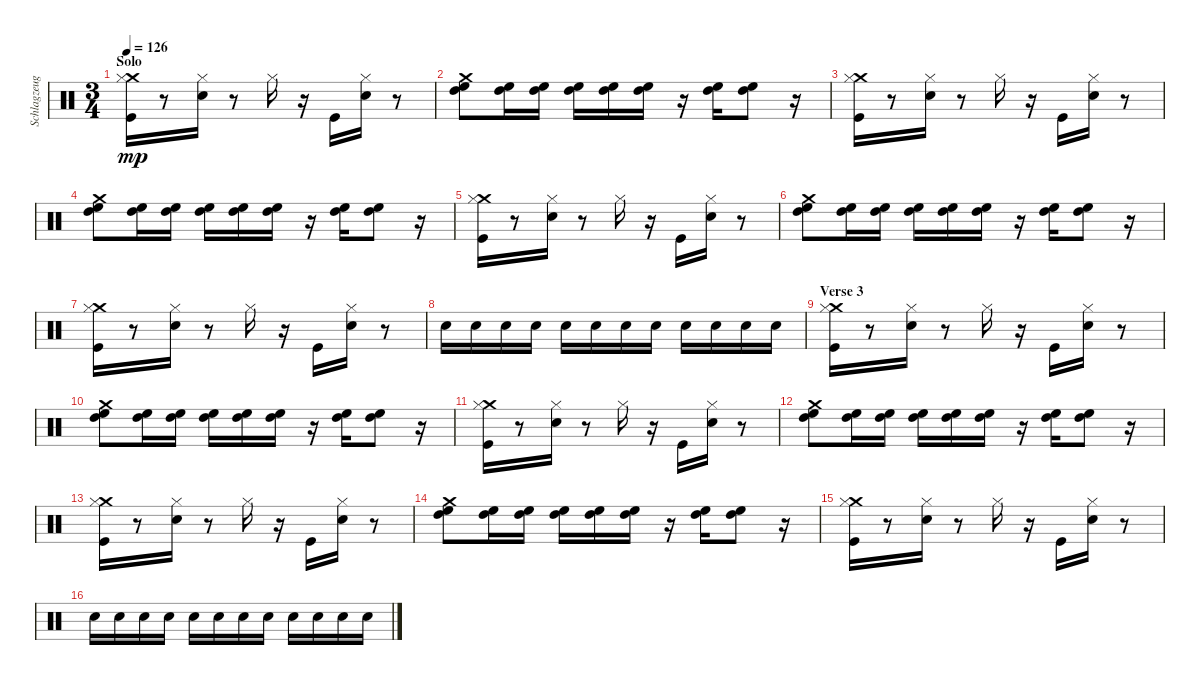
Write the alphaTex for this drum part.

\track ("Schlagzeug - Bela B." "Schlagzeug") {instrument percussion}
\staff {score}
\articulation defaults
\ts (3 4)
\section ("" "Solo")
\tempo 126
\clef neutral
\ks c
("Kick (hit)" "Crash medium (hit)" "Hi-Hat (closed)").16{dy mp} r.8 ("Electric Snare (hit)" "Hi-Hat (closed)").16 r.8 "Hi-Hat (closed)".16 r.16 "Kick (hit)".16 ("Electric Snare (hit)" "Hi-Hat (closed)").16 r.8 |
("High Floor Tom (hit)" "High Tom (hit)" "Crash medium (hit)").8 ("High Floor Tom (hit)" "High Tom (hit)").16 ("High Floor Tom (hit)" "High Tom (hit)").16 ("High Floor Tom (hit)" "High Tom (hit)").16 ("High Floor Tom (hit)" "High Tom (hit)").16 ("High Floor Tom (hit)" "High Tom (hit)").16 r.16 ("High Floor Tom (hit)" "High Tom (hit)").16 ("High Floor Tom (hit)" "High Tom (hit)").8 r.16 |
("Kick (hit)" "Crash medium (hit)" "Hi-Hat (closed)").16 r.8 ("Electric Snare (hit)" "Hi-Hat (closed)").16 r.8 "Hi-Hat (closed)".16 r.16 "Kick (hit)".16 ("Electric Snare (hit)" "Hi-Hat (closed)").16 r.8 |
("High Floor Tom (hit)" "High Tom (hit)" "Crash medium (hit)").8 ("High Floor Tom (hit)" "High Tom (hit)").16 ("High Floor Tom (hit)" "High Tom (hit)").16 ("High Floor Tom (hit)" "High Tom (hit)").16 ("High Floor Tom (hit)" "High Tom (hit)").16 ("High Floor Tom (hit)" "High Tom (hit)").16 r.16 ("High Floor Tom (hit)" "High Tom (hit)").16 ("High Floor Tom (hit)" "High Tom (hit)").8 r.16 |
("Kick (hit)" "Crash medium (hit)" "Hi-Hat (closed)").16 r.8 ("Electric Snare (hit)" "Hi-Hat (closed)").16 r.8 "Hi-Hat (closed)".16 r.16 "Kick (hit)".16 ("Electric Snare (hit)" "Hi-Hat (closed)").16 r.8 |
("High Floor Tom (hit)" "High Tom (hit)" "Crash medium (hit)").8 ("High Floor Tom (hit)" "High Tom (hit)").16 ("High Floor Tom (hit)" "High Tom (hit)").16 ("High Floor Tom (hit)" "High Tom (hit)").16 ("High Floor Tom (hit)" "High Tom (hit)").16 ("High Floor Tom (hit)" "High Tom (hit)").16 r.16 ("High Floor Tom (hit)" "High Tom (hit)").16 ("High Floor Tom (hit)" "High Tom (hit)").8 r.16 |
("Kick (hit)" "Crash medium (hit)" "Hi-Hat (closed)").16 r.8 ("Electric Snare (hit)" "Hi-Hat (closed)").16 r.8 "Hi-Hat (closed)".16 r.16 "Kick (hit)".16 ("Electric Snare (hit)" "Hi-Hat (closed)").16 r.8 |
"Electric Snare (hit)".16 "Electric Snare (hit)".16 "Electric Snare (hit)".16 "Electric Snare (hit)".16 "Electric Snare (hit)".16 "Electric Snare (hit)".16 "Electric Snare (hit)".16 "Electric Snare (hit)".16 "Electric Snare (hit)".16 "Electric Snare (hit)".16 "Electric Snare (hit)".16 "Electric Snare (hit)".16 |
\section ("" "Verse 3")
("Kick (hit)" "Crash medium (hit)" "Hi-Hat (closed)").16 r.8 ("Electric Snare (hit)" "Hi-Hat (closed)").16 r.8 "Hi-Hat (closed)".16 r.16 "Kick (hit)".16 ("Electric Snare (hit)" "Hi-Hat (closed)").16 r.8 |
("High Floor Tom (hit)" "High Tom (hit)" "Crash medium (hit)").8 ("High Floor Tom (hit)" "High Tom (hit)").16 ("High Floor Tom (hit)" "High Tom (hit)").16 ("High Floor Tom (hit)" "High Tom (hit)").16 ("High Floor Tom (hit)" "High Tom (hit)").16 ("High Floor Tom (hit)" "High Tom (hit)").16 r.16 ("High Floor Tom (hit)" "High Tom (hit)").16 ("High Floor Tom (hit)" "High Tom (hit)").8 r.16 |
("Kick (hit)" "Crash medium (hit)" "Hi-Hat (closed)").16 r.8 ("Electric Snare (hit)" "Hi-Hat (closed)").16 r.8 "Hi-Hat (closed)".16 r.16 "Kick (hit)".16 ("Electric Snare (hit)" "Hi-Hat (closed)").16 r.8 |
("High Floor Tom (hit)" "High Tom (hit)" "Crash medium (hit)").8 ("High Floor Tom (hit)" "High Tom (hit)").16 ("High Floor Tom (hit)" "High Tom (hit)").16 ("High Floor Tom (hit)" "High Tom (hit)").16 ("High Floor Tom (hit)" "High Tom (hit)").16 ("High Floor Tom (hit)" "High Tom (hit)").16 r.16 ("High Floor Tom (hit)" "High Tom (hit)").16 ("High Floor Tom (hit)" "High Tom (hit)").8 r.16 |
("Kick (hit)" "Crash medium (hit)" "Hi-Hat (closed)").16 r.8 ("Electric Snare (hit)" "Hi-Hat (closed)").16 r.8 "Hi-Hat (closed)".16 r.16 "Kick (hit)".16 ("Electric Snare (hit)" "Hi-Hat (closed)").16 r.8 |
("High Floor Tom (hit)" "High Tom (hit)" "Crash medium (hit)").8 ("High Floor Tom (hit)" "High Tom (hit)").16 ("High Floor Tom (hit)" "High Tom (hit)").16 ("High Floor Tom (hit)" "High Tom (hit)").16 ("High Floor Tom (hit)" "High Tom (hit)").16 ("High Floor Tom (hit)" "High Tom (hit)").16 r.16 ("High Floor Tom (hit)" "High Tom (hit)").16 ("High Floor Tom (hit)" "High Tom (hit)").8 r.16 |
("Kick (hit)" "Crash medium (hit)" "Hi-Hat (closed)").16 r.8 ("Electric Snare (hit)" "Hi-Hat (closed)").16 r.8 "Hi-Hat (closed)".16 r.16 "Kick (hit)".16 ("Electric Snare (hit)" "Hi-Hat (closed)").16 r.8 |
"Electric Snare (hit)".16 "Electric Snare (hit)".16 "Electric Snare (hit)".16 "Electric Snare (hit)".16 "Electric Snare (hit)".16 "Electric Snare (hit)".16 "Electric Snare (hit)".16 "Electric Snare (hit)".16 "Electric Snare (hit)".16 "Electric Snare (hit)".16 "Electric Snare (hit)".16 "Electric Snare (hit)".16
